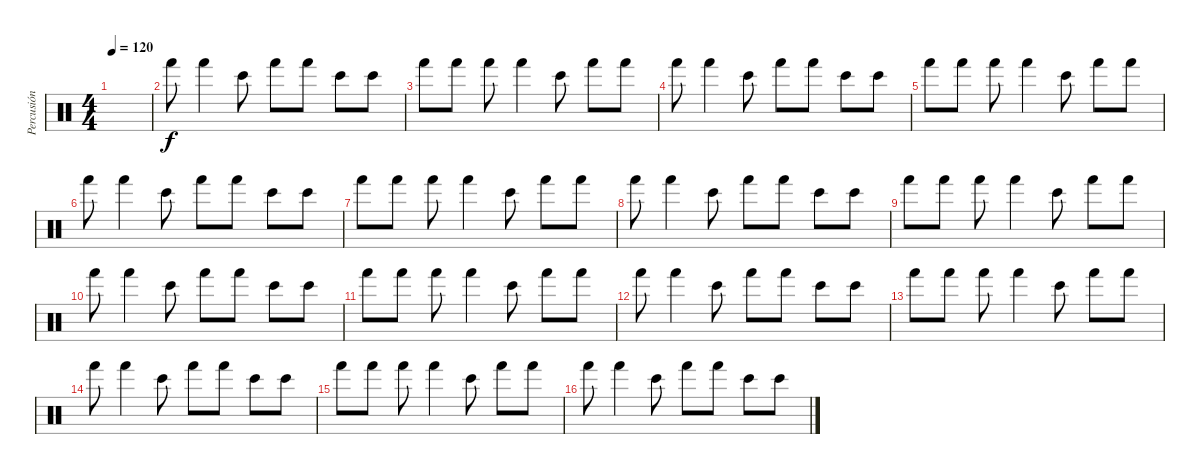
\track ("Percusión" "Percusión") {instrument percussion}
\staff
\articulation defaults
\ts (4 4)
\tempo 120
\clef neutral
\ks c
|
"Hand (hit)".8 "Hand (hit)".4 "Bongo High (hit)".8 "Hand (hit)".8 "Hand (hit)".8 "Bongo High (hit)".8 "Bongo High (hit)".8 |
"Hand (hit)".8 "Hand (hit)".8 "Hand (hit)".8 "Hand (hit)".4 "Bongo High (hit)".8 "Hand (hit)".8 "Hand (hit)".8 |
"Hand (hit)".8 "Hand (hit)".4 "Bongo High (hit)".8 "Hand (hit)".8 "Hand (hit)".8 "Bongo High (hit)".8 "Bongo High (hit)".8 |
"Hand (hit)".8 "Hand (hit)".8 "Hand (hit)".8 "Hand (hit)".4 "Bongo High (hit)".8 "Hand (hit)".8 "Hand (hit)".8 |
"Hand (hit)".8 "Hand (hit)".4 "Bongo High (hit)".8 "Hand (hit)".8 "Hand (hit)".8 "Bongo High (hit)".8 "Bongo High (hit)".8 |
"Hand (hit)".8 "Hand (hit)".8 "Hand (hit)".8 "Hand (hit)".4 "Bongo High (hit)".8 "Hand (hit)".8 "Hand (hit)".8 |
"Hand (hit)".8 "Hand (hit)".4 "Bongo High (hit)".8 "Hand (hit)".8 "Hand (hit)".8 "Bongo High (hit)".8 "Bongo High (hit)".8 |
"Hand (hit)".8 "Hand (hit)".8 "Hand (hit)".8 "Hand (hit)".4 "Bongo High (hit)".8 "Hand (hit)".8 "Hand (hit)".8 |
"Hand (hit)".8 "Hand (hit)".4 "Bongo High (hit)".8 "Hand (hit)".8 "Hand (hit)".8 "Bongo High (hit)".8 "Bongo High (hit)".8 |
"Hand (hit)".8 "Hand (hit)".8 "Hand (hit)".8 "Hand (hit)".4 "Bongo High (hit)".8 "Hand (hit)".8 "Hand (hit)".8 |
"Hand (hit)".8 "Hand (hit)".4 "Bongo High (hit)".8 "Hand (hit)".8 "Hand (hit)".8 "Bongo High (hit)".8 "Bongo High (hit)".8 |
"Hand (hit)".8 "Hand (hit)".8 "Hand (hit)".8 "Hand (hit)".4 "Bongo High (hit)".8 "Hand (hit)".8 "Hand (hit)".8 |
"Hand (hit)".8 "Hand (hit)".4 "Bongo High (hit)".8 "Hand (hit)".8 "Hand (hit)".8 "Bongo High (hit)".8 "Bongo High (hit)".8 |
"Hand (hit)".8 "Hand (hit)".8 "Hand (hit)".8 "Hand (hit)".4 "Bongo High (hit)".8 "Hand (hit)".8 "Hand (hit)".8 |
"Hand (hit)".8 "Hand (hit)".4 "Bongo High (hit)".8 "Hand (hit)".8 "Hand (hit)".8 "Bongo High (hit)".8 "Bongo High (hit)".8
